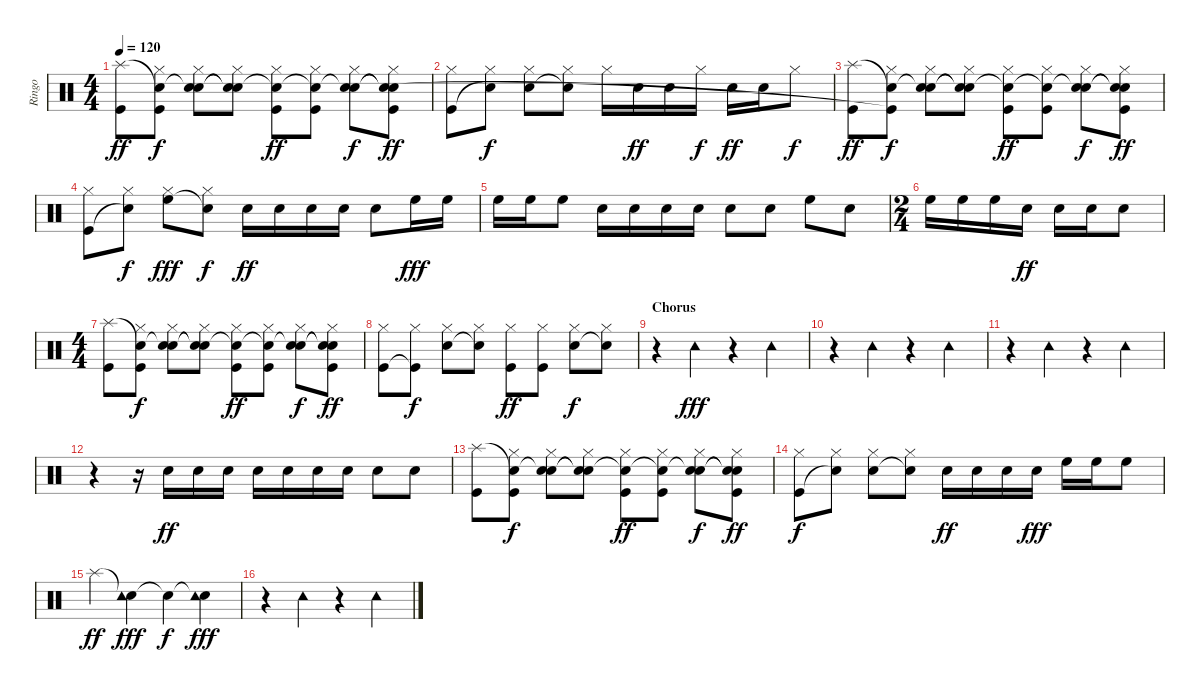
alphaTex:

\track ("Ringo" "Ringo") {instrument percussion}
\staff {score}
\articulation defaults
\ts (4 4)
\tempo 120
\clef neutral
\ks c
("Splash (hit)" "Kick (hit)").8{dy ff} ("Snare (hit)"{t} "Hi-Hat (closed)" "Kick (hit)"{t}).8{dy f} ("Snare (hit)"{t} "Hi-Hat (closed)" "Electric Snare (hit)").8 ("Snare (hit)"{t} "Hi-Hat (closed)" "Snare (hit)"{t}).8 ("Snare (hit)"{t} "Hi-Hat (closed)" "Kick (hit)").8{dy ff} ("Snare (hit)"{t} "Hi-Hat (closed)" "Kick (hit)").8 ("Snare (hit)"{t} "Hi-Hat (closed)" "Electric Snare (hit)").8{dy f} ("Snare (hit)"{t} "Hi-Hat (closed)" "Snare (hit)"{t} "Kick (hit)").8{dy ff} |
("Hi-Hat (closed)" "Kick (hit)").8 ("Hi-Hat (closed)" "Snare (hit)"{t}).8{dy f} ("Hi-Hat (closed)" "Electric Snare (hit)").8 ("Hi-Hat (closed)" "Snare (hit)"{t}).8 "Hi-Hat (closed)".16 "Electric Snare (hit)".16{dy ff} "Electric Snare (hit)".16 "Hi-Hat (closed)".16{dy f} "Electric Snare (hit)".16{dy ff} "Electric Snare (hit)".16 "Hi-Hat (closed)".8{dy f} |
("Splash (hit)" "Kick (hit)").8{dy ff} ("Snare (hit)"{t} "Hi-Hat (closed)" "Kick (hit)"{t}).8{dy f} ("Snare (hit)"{t} "Hi-Hat (closed)" "Electric Snare (hit)").8 ("Snare (hit)"{t} "Hi-Hat (closed)" "Snare (hit)"{t}).8 ("Snare (hit)"{t} "Hi-Hat (closed)" "Kick (hit)").8{dy ff} ("Snare (hit)"{t} "Hi-Hat (closed)" "Kick (hit)").8 ("Snare (hit)"{t} "Hi-Hat (closed)" "Electric Snare (hit)").8{dy f} ("Snare (hit)"{t} "Hi-Hat (closed)" "Snare (hit)"{t} "Kick (hit)").8{dy ff} |
("Hi-Hat (closed)" "Kick (hit)").8 ("Hi-Hat (closed)" "Snare (hit)"{t}).8{dy f} ("Hi-Hat (closed)" "High Floor Tom (hit)").8{dy fff} ("Hi-Hat (closed)" "Snare (hit)"{t}).8{dy f} "Electric Snare (hit)".16{dy ff} "Electric Snare (hit)".16 "Electric Snare (hit)".16 "Electric Snare (hit)".16 "Electric Snare (hit)".8 "High Floor Tom (hit)".16{dy fff} "High Floor Tom (hit)".16 |
"High Floor Tom (hit)".16 "High Floor Tom (hit)".16 "High Floor Tom (hit)".8 "Electric Snare (hit)".16 "Electric Snare (hit)".16 "Electric Snare (hit)".16 "Electric Snare (hit)".16 "Electric Snare (hit)".8 "Electric Snare (hit)".8 "High Floor Tom (hit)".8 "Electric Snare (hit)".8 |
\ts (2 4)
"High Floor Tom (hit)".16 "High Floor Tom (hit)".16 "High Floor Tom (hit)".16 "Electric Snare (hit)".16{dy ff} "Electric Snare (hit)".16 "Electric Snare (hit)".16 "Electric Snare (hit)".8 |
\ts (4 4)
("Splash (hit)" "Kick (hit)").8 ("Snare (hit)"{t} "Hi-Hat (closed)" "Kick (hit)").8{dy f} ("Snare (hit)"{t} "Hi-Hat (closed)" "Electric Snare (hit)").8 ("Snare (hit)"{t} "Hi-Hat (closed)" "Snare (hit)"{t}).8 ("Snare (hit)"{t} "Hi-Hat (closed)" "Kick (hit)").8{dy ff} ("Snare (hit)"{t} "Hi-Hat (closed)" "Kick (hit)").8 ("Snare (hit)"{t} "Hi-Hat (closed)" "Electric Snare (hit)").8{dy f} ("Snare (hit)"{t} "Hi-Hat (closed)" "Snare (hit)"{t} "Kick (hit)").8{dy ff} |
("Hi-Hat (closed)" "Kick (hit)").8 ("Hi-Hat (closed)" "Kick (hit)"{t}).8{dy f} ("Hi-Hat (closed)" "Electric Snare (hit)").8 ("Hi-Hat (closed)" "Snare (hit)"{t}).8 ("Hi-Hat (closed)" "Kick (hit)").8{dy ff} ("Hi-Hat (closed)" "Kick (hit)").8 ("Hi-Hat (closed)" "Electric Snare (hit)").8{dy f} ("Hi-Hat (closed)" "Snare (hit)"{t}).8 |
\section ("" "Chorus")
r.4 "Tambourine (hit)".4{dy fff} r.4 "Tambourine (hit)".4 |
r.4 "Tambourine (hit)".4 r.4 "Tambourine (hit)".4 |
r.4 "Tambourine (hit)".4 r.4 "Tambourine (hit)".4 |
r.4 r.16 "Electric Snare (hit)".16{dy ff} "Electric Snare (hit)".16 "Electric Snare (hit)".16 "Electric Snare (hit)".16 "Electric Snare (hit)".16 "Electric Snare (hit)".16 "Electric Snare (hit)".16 "Electric Snare (hit)".8 "Electric Snare (hit)".8 |
("Splash (hit)" "Kick (hit)").8 ("Snare (hit)"{t} "Hi-Hat (closed)" "Kick (hit)").8{dy f} ("Snare (hit)"{t} "Hi-Hat (closed)" "Electric Snare (hit)").8 ("Snare (hit)"{t} "Hi-Hat (closed)" "Snare (hit)"{t}).8 ("Snare (hit)"{t} "Hi-Hat (closed)" "Kick (hit)").8{dy ff} ("Snare (hit)"{t} "Hi-Hat (closed)" "Kick (hit)").8 ("Snare (hit)"{t} "Hi-Hat (closed)" "Electric Snare (hit)").8{dy f} ("Snare (hit)"{t} "Hi-Hat (closed)" "Snare (hit)"{t} "Kick (hit)").8{dy ff} |
("Hi-Hat (closed)" "Kick (hit)").8{dy f} ("Hi-Hat (closed)" "Snare (hit)"{t}).8 ("Hi-Hat (closed)" "Electric Snare (hit)").8 ("Hi-Hat (closed)" "Snare (hit)"{t}).8 "Electric Snare (hit)".16{dy ff} "Electric Snare (hit)".16 "Electric Snare (hit)".16 "Electric Snare (hit)".16{dy fff} "High Floor Tom (hit)".16 "High Floor Tom (hit)".16 "High Floor Tom (hit)".8 |
"Splash (hit)".4{dy ff} ("Snare (hit)"{t} "Tambourine (hit)").4{dy fff} "Snare (hit)"{t}.4{dy f} ("Snare (hit)"{t} "Tambourine (hit)").4{dy fff} |
r.4 "Tambourine (hit)".4 r.4 "Tambourine (hit)".4
